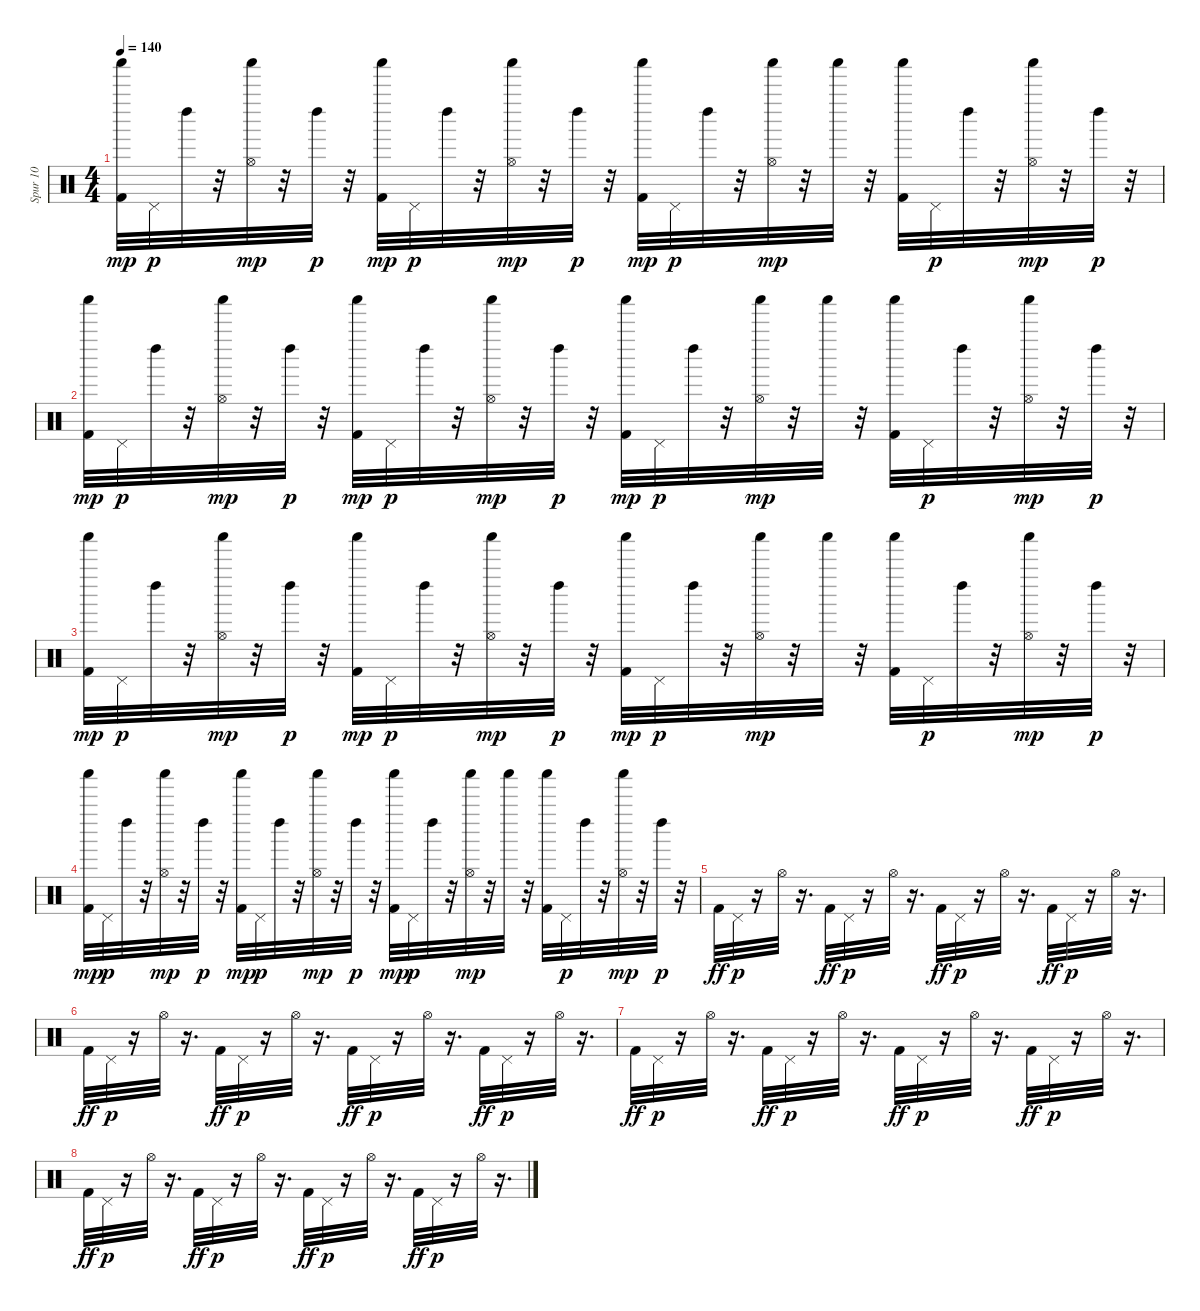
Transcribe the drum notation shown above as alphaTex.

\track ("Spur 10" "Spur 10") {instrument percussion}
\staff {score}
\articulation defaults
\ts (4 4)
\tempo 140
\clef neutral
\ks c
("Kick (hit) 2" "Shaker (hit)").32{dy mp} "Pedal Hi-Hat (hit)".32{dy p} "Left Maraca (hit)".32 r.32 ("Hi-Hat (open)" "Shaker (hit)").32{dy mp} r.32 "Left Maraca (hit)".32{dy p} r.32 ("Kick (hit) 2" "Shaker (hit)").32{dy mp} "Pedal Hi-Hat (hit)".32{dy p} "Left Maraca (hit)".32 r.32 ("Hi-Hat (open)" "Shaker (hit)").32{dy mp} r.32 "Left Maraca (hit)".32{dy p} r.32 ("Kick (hit) 2" "Shaker (hit)").32{dy mp} "Pedal Hi-Hat (hit)".32{dy p} "Left Maraca (hit)".32 r.32 ("Hi-Hat (open)" "Shaker (hit)").32{dy mp} r.32 "Shaker (hit)".32 r.32 ("Kick (hit) 2" "Shaker (hit)").32 "Pedal Hi-Hat (hit)".32{dy p} "Left Maraca (hit)".32 r.32 ("Hi-Hat (open)" "Shaker (hit)").32{dy mp} r.32 "Left Maraca (hit)".32{dy p} r.32 |
("Kick (hit) 2" "Shaker (hit)").32{dy mp} "Pedal Hi-Hat (hit)".32{dy p} "Left Maraca (hit)".32 r.32 ("Hi-Hat (open)" "Shaker (hit)").32{dy mp} r.32 "Left Maraca (hit)".32{dy p} r.32 ("Kick (hit) 2" "Shaker (hit)").32{dy mp} "Pedal Hi-Hat (hit)".32{dy p} "Left Maraca (hit)".32 r.32 ("Hi-Hat (open)" "Shaker (hit)").32{dy mp} r.32 "Left Maraca (hit)".32{dy p} r.32 ("Kick (hit) 2" "Shaker (hit)").32{dy mp} "Pedal Hi-Hat (hit)".32{dy p} "Left Maraca (hit)".32 r.32 ("Hi-Hat (open)" "Shaker (hit)").32{dy mp} r.32 "Shaker (hit)".32 r.32 ("Kick (hit) 2" "Shaker (hit)").32 "Pedal Hi-Hat (hit)".32{dy p} "Left Maraca (hit)".32 r.32 ("Hi-Hat (open)" "Shaker (hit)").32{dy mp} r.32 "Left Maraca (hit)".32{dy p} r.32 |
("Kick (hit) 2" "Shaker (hit)").32{dy mp} "Pedal Hi-Hat (hit)".32{dy p} "Left Maraca (hit)".32 r.32 ("Hi-Hat (open)" "Shaker (hit)").32{dy mp} r.32 "Left Maraca (hit)".32{dy p} r.32 ("Kick (hit) 2" "Shaker (hit)").32{dy mp} "Pedal Hi-Hat (hit)".32{dy p} "Left Maraca (hit)".32 r.32 ("Hi-Hat (open)" "Shaker (hit)").32{dy mp} r.32 "Left Maraca (hit)".32{dy p} r.32 ("Kick (hit) 2" "Shaker (hit)").32{dy mp} "Pedal Hi-Hat (hit)".32{dy p} "Left Maraca (hit)".32 r.32 ("Hi-Hat (open)" "Shaker (hit)").32{dy mp} r.32 "Shaker (hit)".32 r.32 ("Kick (hit) 2" "Shaker (hit)").32 "Pedal Hi-Hat (hit)".32{dy p} "Left Maraca (hit)".32 r.32 ("Hi-Hat (open)" "Shaker (hit)").32{dy mp} r.32 "Left Maraca (hit)".32{dy p} r.32 |
("Kick (hit) 2" "Shaker (hit)").32{dy mp} "Pedal Hi-Hat (hit)".32{dy p} "Left Maraca (hit)".32 r.32 ("Hi-Hat (open)" "Shaker (hit)").32{dy mp} r.32 "Left Maraca (hit)".32{dy p} r.32 ("Kick (hit) 2" "Shaker (hit)").32{dy mp} "Pedal Hi-Hat (hit)".32{dy p} "Left Maraca (hit)".32 r.32 ("Hi-Hat (open)" "Shaker (hit)").32{dy mp} r.32 "Left Maraca (hit)".32{dy p} r.32 ("Kick (hit) 2" "Shaker (hit)").32{dy mp} "Pedal Hi-Hat (hit)".32{dy p} "Left Maraca (hit)".32 r.32 ("Hi-Hat (open)" "Shaker (hit)").32{dy mp} r.32 "Shaker (hit)".32 r.32 ("Kick (hit) 2" "Shaker (hit)").32 "Pedal Hi-Hat (hit)".32{dy p} "Left Maraca (hit)".32 r.32 ("Hi-Hat (open)" "Shaker (hit)").32{dy mp} r.32 "Left Maraca (hit)".32{dy p} r.32 |
"Kick (hit) 2".32{dy ff} "Pedal Hi-Hat (hit)".32{dy p} r.16 "Hi-Hat (open)".32 r.16{d} "Kick (hit) 2".32{dy ff} "Pedal Hi-Hat (hit)".32{dy p} r.16 "Hi-Hat (open)".32 r.16{d} "Kick (hit) 2".32{dy ff} "Pedal Hi-Hat (hit)".32{dy p} r.16 "Hi-Hat (open)".32 r.16{d} "Kick (hit) 2".32{dy ff} "Pedal Hi-Hat (hit)".32{dy p} r.16 "Hi-Hat (open)".32 r.16{d} |
"Kick (hit) 2".32{dy ff} "Pedal Hi-Hat (hit)".32{dy p} r.16 "Hi-Hat (open)".32 r.16{d} "Kick (hit) 2".32{dy ff} "Pedal Hi-Hat (hit)".32{dy p} r.16 "Hi-Hat (open)".32 r.16{d} "Kick (hit) 2".32{dy ff} "Pedal Hi-Hat (hit)".32{dy p} r.16 "Hi-Hat (open)".32 r.16{d} "Kick (hit) 2".32{dy ff} "Pedal Hi-Hat (hit)".32{dy p} r.16 "Hi-Hat (open)".32 r.16{d} |
"Kick (hit) 2".32{dy ff} "Pedal Hi-Hat (hit)".32{dy p} r.16 "Hi-Hat (open)".32 r.16{d} "Kick (hit) 2".32{dy ff} "Pedal Hi-Hat (hit)".32{dy p} r.16 "Hi-Hat (open)".32 r.16{d} "Kick (hit) 2".32{dy ff} "Pedal Hi-Hat (hit)".32{dy p} r.16 "Hi-Hat (open)".32 r.16{d} "Kick (hit) 2".32{dy ff} "Pedal Hi-Hat (hit)".32{dy p} r.16 "Hi-Hat (open)".32 r.16{d} |
"Kick (hit) 2".32{dy ff} "Pedal Hi-Hat (hit)".32{dy p} r.16 "Hi-Hat (open)".32 r.16{d} "Kick (hit) 2".32{dy ff} "Pedal Hi-Hat (hit)".32{dy p} r.16 "Hi-Hat (open)".32 r.16{d} "Kick (hit) 2".32{dy ff} "Pedal Hi-Hat (hit)".32{dy p} r.16 "Hi-Hat (open)".32 r.16{d} "Kick (hit) 2".32{dy ff} "Pedal Hi-Hat (hit)".32{dy p} r.16 "Hi-Hat (open)".32 r.16{d}
